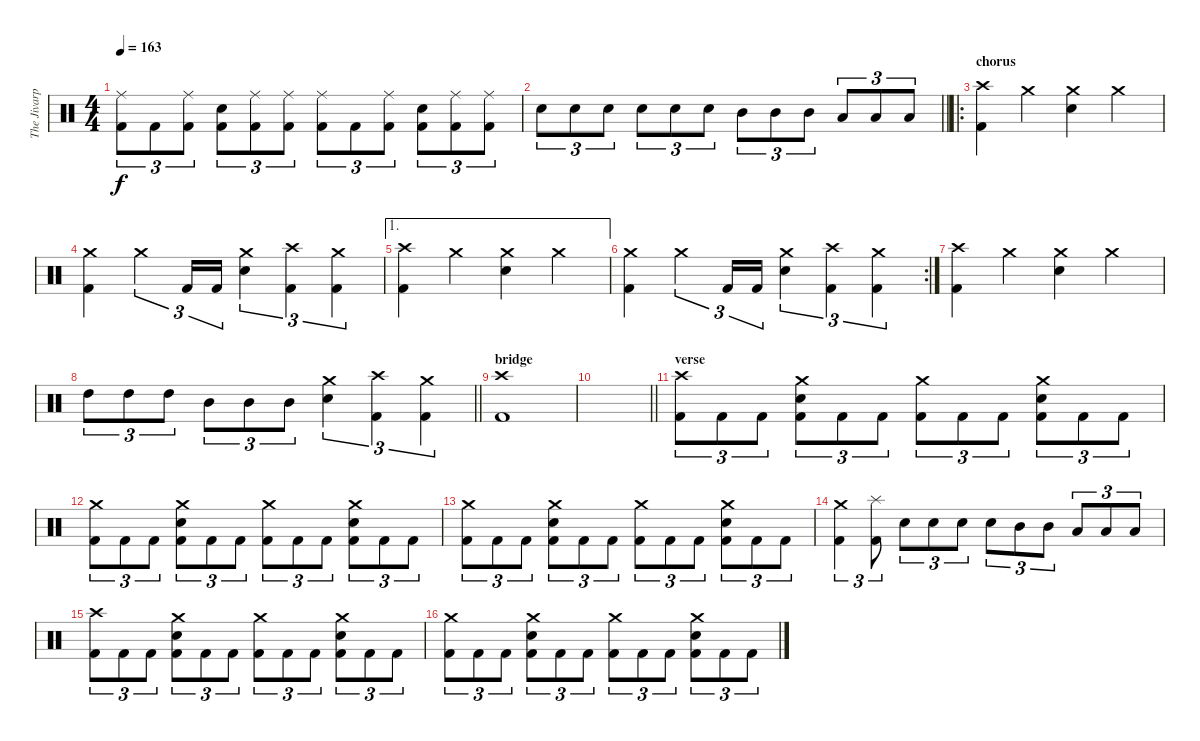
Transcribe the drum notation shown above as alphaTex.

\track ("The Jivarp" "The Jivarp") {instrument percussion}
\staff {score}
\articulation defaults
\ts (4 4)
\tempo 163
\clef neutral
\ks c
("Ride (middle)" "Kick (hit) 2").8{tu (3 2) dy f} "Kick (hit) 2".8{tu (3 2)} ("Ride (middle)" "Kick (hit) 2").8{tu (3 2)} ("Electric Snare (hit)" "Kick (hit) 2").8{tu (3 2)} ("Ride (middle)" "Kick (hit) 2").8{tu (3 2)} ("Ride (middle)" "Kick (hit) 2").8{tu (3 2)} ("Ride (middle)" "Kick (hit) 2").8{tu (3 2)} "Kick (hit) 2".8{tu (3 2)} ("Ride (middle)" "Kick (hit) 2").8{tu (3 2)} ("Electric Snare (hit)" "Kick (hit) 2").8{tu (3 2)} ("Ride (middle)" "Kick (hit) 2").8{tu (3 2)} ("Ride (middle)" "Kick (hit) 2").8{tu (3 2)} |
\barLineRight lightlight "Electric Snare (hit)".8{tu (3 2)} "Electric Snare (hit)".8{tu (3 2)} "Electric Snare (hit)".8{tu (3 2)} "Electric Snare (hit)".8{tu (3 2)} "Electric Snare (hit)".8{tu (3 2)} "Electric Snare (hit)".8{tu (3 2)} "Mid Tom (hit)".8{tu (3 2)} "Mid Tom (hit)".8{tu (3 2)} "Mid Tom (hit)".8{tu (3 2)} "Low Tom (hit)".8{tu (3 2)} "Low Tom (hit)".8{tu (3 2)} "Low Tom (hit)".8{tu (3 2)}
|
\ro
\section ("" "chorus")
("Crash high (hit)" "Kick (hit) 2").4 "Crash medium (hit)".4 ("Crash medium (hit)" "Electric Snare (hit)").4 "Crash medium (hit)".4 |
("Crash medium (hit)" "Kick (hit) 2").4 "Crash medium (hit)".4{tu (3 2)} "Kick (hit) 2".16{tu (3 2)} "Kick (hit) 2".16{tu (3 2)} ("Crash medium (hit)" "Electric Snare (hit)").4{tu (3 2)} ("Crash high (hit)" "Kick (hit) 2").4{tu (3 2)} ("Crash medium (hit)" "Kick (hit) 2").4{tu (3 2)} |
\ae 1
("Crash high (hit)" "Kick (hit) 2").4 "Crash medium (hit)".4 ("Crash medium (hit)" "Electric Snare (hit)").4 "Crash medium (hit)".4 |
\rc 2
("Crash medium (hit)" "Kick (hit) 2").4 "Crash medium (hit)".4{tu (3 2)} "Kick (hit) 2".16{tu (3 2)} "Kick (hit) 2".16{tu (3 2)} ("Crash medium (hit)" "Electric Snare (hit)").4{tu (3 2)} ("Crash high (hit)" "Kick (hit) 2").4{tu (3 2)} ("Crash medium (hit)" "Kick (hit) 2").4{tu (3 2)} |
("Crash high (hit)" "Kick (hit) 2").4 "Crash medium (hit)".4 ("Crash medium (hit)" "Electric Snare (hit)").4 "Crash medium (hit)".4 |
\barLineRight lightlight "High Tom (hit)".8{tu (3 2)} "High Tom (hit)".8{tu (3 2)} "High Tom (hit)".8{tu (3 2)} "Mid Tom (hit)".8{tu (3 2)} "Mid Tom (hit)".8{tu (3 2)} "Mid Tom (hit)".8{tu (3 2)}
("Crash medium (hit)" "Electric Snare (hit)").4{tu (3 2)} ("Crash high (hit)" "Kick (hit) 2").4{tu (3 2)} ("Crash medium (hit)" "Kick (hit) 2").4{tu (3 2)} |
\section ("" "bridge")
("Crash high (hit)" "Kick (hit) 2").1 |
\barLineRight lightlight
|
\section ("" "verse")
("Crash high (hit)" "Kick (hit) 2").8{tu (3 2)} "Kick (hit) 2".8{tu (3 2)} "Kick (hit) 2".8{tu (3 2)} ("Crash medium (hit)" "Electric Snare (hit)" "Kick (hit) 2").8{tu (3 2)} "Kick (hit) 2".8{tu (3 2)} "Kick (hit) 2".8{tu (3 2)} ("Crash medium (hit)" "Kick (hit) 2").8{tu (3 2)} "Kick (hit) 2".8{tu (3 2)} "Kick (hit) 2".8{tu (3 2)} ("Crash medium (hit)" "Electric Snare (hit)" "Kick (hit) 2").8{tu (3 2)} "Kick (hit) 2".8{tu (3 2)} "Kick (hit) 2".8{tu (3 2)} |
("Crash medium (hit)" "Kick (hit) 2").8{tu (3 2)} "Kick (hit) 2".8{tu (3 2)} "Kick (hit) 2".8{tu (3 2)} ("Crash medium (hit)" "Electric Snare (hit)" "Kick (hit) 2").8{tu (3 2)} "Kick (hit) 2".8{tu (3 2)} "Kick (hit) 2".8{tu (3 2)} ("Crash medium (hit)" "Kick (hit) 2").8{tu (3 2)} "Kick (hit) 2".8{tu (3 2)} "Kick (hit) 2".8{tu (3 2)} ("Crash medium (hit)" "Electric Snare (hit)" "Kick (hit) 2").8{tu (3 2)} "Kick (hit) 2".8{tu (3 2)} "Kick (hit) 2".8{tu (3 2)} |
("Crash medium (hit)" "Kick (hit) 2").8{tu (3 2)} "Kick (hit) 2".8{tu (3 2)} "Kick (hit) 2".8{tu (3 2)} ("Crash medium (hit)" "Electric Snare (hit)" "Kick (hit) 2").8{tu (3 2)} "Kick (hit) 2".8{tu (3 2)} "Kick (hit) 2".8{tu (3 2)} ("Crash medium (hit)" "Kick (hit) 2").8{tu (3 2)} "Kick (hit) 2".8{tu (3 2)} "Kick (hit) 2".8{tu (3 2)} ("Crash medium (hit)" "Electric Snare (hit)" "Kick (hit) 2").8{tu (3 2)} "Kick (hit) 2".8{tu (3 2)} "Kick (hit) 2".8{tu (3 2)} |
("Crash medium (hit)" "Kick (hit) 2").4{tu (3 2)} ("Splash (hit)" "Kick (hit) 2").8{tu (3 2)} "Electric Snare (hit)".8{tu (3 2)} "Electric Snare (hit)".8{tu (3 2)} "Electric Snare (hit)".8{tu (3 2)} "Electric Snare (hit)".8{tu (3 2)} "Mid Tom (hit)".8{tu (3 2)} "Mid Tom (hit)".8{tu (3 2)} "Low Tom (hit)".8{tu (3 2)} "Low Tom (hit)".8{tu (3 2)} "Low Tom (hit)".8{tu (3 2)} |
("Crash high (hit)" "Kick (hit) 2").8{tu (3 2)} "Kick (hit) 2".8{tu (3 2)} "Kick (hit) 2".8{tu (3 2)} ("Crash medium (hit)" "Electric Snare (hit)" "Kick (hit) 2").8{tu (3 2)} "Kick (hit) 2".8{tu (3 2)} "Kick (hit) 2".8{tu (3 2)} ("Crash medium (hit)" "Kick (hit) 2").8{tu (3 2)} "Kick (hit) 2".8{tu (3 2)} "Kick (hit) 2".8{tu (3 2)} ("Crash medium (hit)" "Electric Snare (hit)" "Kick (hit) 2").8{tu (3 2)} "Kick (hit) 2".8{tu (3 2)} "Kick (hit) 2".8{tu (3 2)} |
("Crash medium (hit)" "Kick (hit) 2").8{tu (3 2)} "Kick (hit) 2".8{tu (3 2)} "Kick (hit) 2".8{tu (3 2)} ("Crash medium (hit)" "Electric Snare (hit)" "Kick (hit) 2").8{tu (3 2)} "Kick (hit) 2".8{tu (3 2)} "Kick (hit) 2".8{tu (3 2)} ("Crash medium (hit)" "Kick (hit) 2").8{tu (3 2)} "Kick (hit) 2".8{tu (3 2)} "Kick (hit) 2".8{tu (3 2)} ("Crash medium (hit)" "Electric Snare (hit)" "Kick (hit) 2").8{tu (3 2)} "Kick (hit) 2".8{tu (3 2)} "Kick (hit) 2".8{tu (3 2)}
